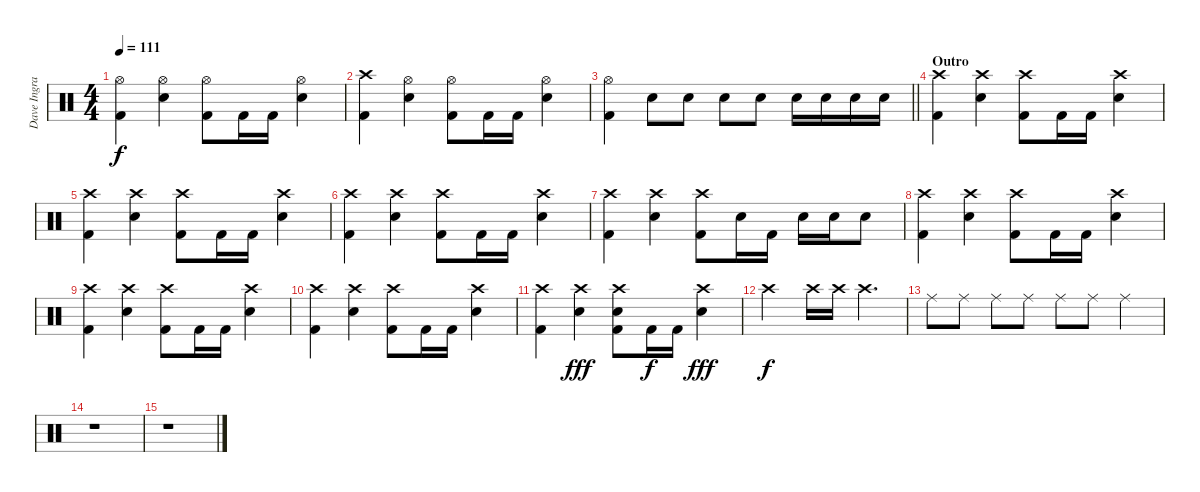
\track ("Dave Ingraham" "Dave Ingra") {instrument percussion}
\staff {score}
\articulation defaults
\ts (4 4)
\tempo 111
\clef neutral
\ks c
("Hi-Hat (open)" "Kick (hit) 2").4{dy f} ("Hi-Hat (open)" "Electric Snare (hit)").4 ("Hi-Hat (open)" "Kick (hit) 2").8 "Kick (hit) 2".16 "Kick (hit) 2".16 ("Hi-Hat (open)" "Electric Snare (hit)").4 |
("Crash high (hit)" "Kick (hit) 2").4 ("Hi-Hat (open)" "Electric Snare (hit)").4 ("Hi-Hat (open)" "Kick (hit) 2").8 "Kick (hit) 2".16 "Kick (hit) 2".16 ("Hi-Hat (open)" "Electric Snare (hit)").4 |
\barLineRight lightlight
("Hi-Hat (open)" "Kick (hit) 2").4 "Electric Snare (hit)".8 "Electric Snare (hit)".8 "Electric Snare (hit)".8 "Electric Snare (hit)".8 "Electric Snare (hit)".16 "Electric Snare (hit)".16 "Electric Snare (hit)".16 "Electric Snare (hit)".16 |
\section ("" "Outro")
("Crash high (hit)" "Kick (hit) 2").4 ("Crash high (hit)" "Electric Snare (hit)").4 ("Crash high (hit)" "Kick (hit) 2").8 "Kick (hit) 2".16 "Kick (hit) 2".16 ("Crash high (hit)" "Electric Snare (hit)").4 |
("Crash high (hit)" "Kick (hit) 2").4 ("Crash high (hit)" "Electric Snare (hit)").4 ("Crash high (hit)" "Kick (hit) 2").8 "Kick (hit) 2".16 "Kick (hit) 2".16 ("Crash high (hit)" "Electric Snare (hit)").4 |
("Crash high (hit)" "Kick (hit) 2").4 ("Crash high (hit)" "Electric Snare (hit)").4 ("Crash high (hit)" "Kick (hit) 2").8 "Kick (hit) 2".16 "Kick (hit) 2".16 ("Crash high (hit)" "Electric Snare (hit)").4 |
("Crash high (hit)" "Kick (hit) 2").4 ("Crash high (hit)" "Electric Snare (hit)").4 ("Crash high (hit)" "Kick (hit) 2").8 "Electric Snare (hit)".16 "Kick (hit) 2".16 "Electric Snare (hit)".16 "Electric Snare (hit)".16 "Electric Snare (hit)".8 |
("Crash high (hit)" "Kick (hit) 2").4 ("Crash high (hit)" "Electric Snare (hit)").4 ("Crash high (hit)" "Kick (hit) 2").8 "Kick (hit) 2".16 "Kick (hit) 2".16 ("Crash high (hit)" "Electric Snare (hit)").4 |
("Crash high (hit)" "Kick (hit) 2").4 ("Crash high (hit)" "Electric Snare (hit)").4 ("Crash high (hit)" "Kick (hit) 2").8 "Kick (hit) 2".16 "Kick (hit) 2".16 ("Crash high (hit)" "Electric Snare (hit)").4 |
("Crash high (hit)" "Kick (hit) 2").4 ("Crash high (hit)" "Electric Snare (hit)").4 ("Crash high (hit)" "Kick (hit) 2").8 "Kick (hit) 2".16 "Kick (hit) 2".16 ("Crash high (hit)" "Electric Snare (hit)").4 |
("Crash high (hit)" "Kick (hit) 2").4 ("Crash high (hit)" "Electric Snare (hit)").4{dy fff} ("Crash high (hit)" "Electric Snare (hit)" "Kick (hit) 2").8 "Kick (hit) 2".16{dy f} "Kick (hit) 2".16 ("Crash high (hit)" "Electric Snare (hit)").4{dy fff} |
"Crash high (hit)".2{dy f} "Crash high (hit)".16 "Crash high (hit)".16 "Crash high (hit)".4{d} |
"Ride (middle)".8 "Ride (middle)".8 "Ride (middle)".8 "Ride (middle)".8 "Ride (middle)".8 "Ride (middle)".8 "Ride (middle)".4 |
r.1 |
r.1
